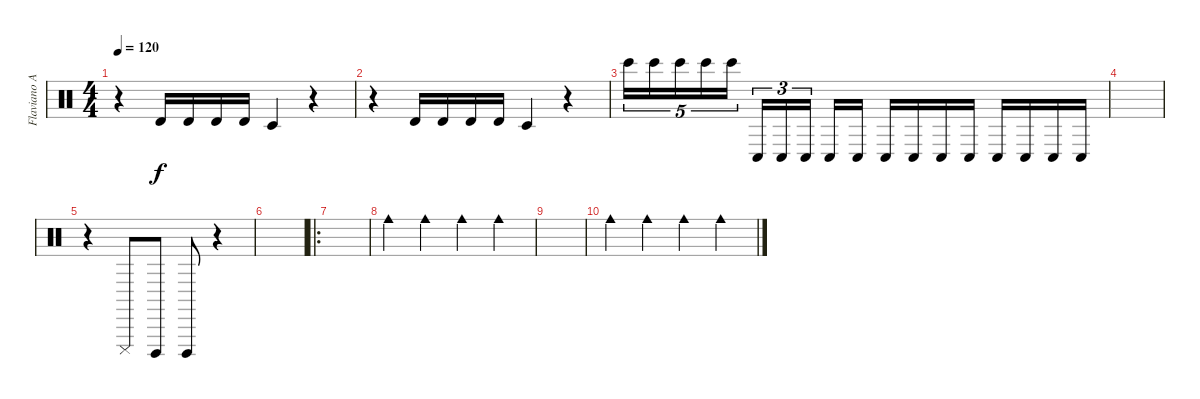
\track ("Flaviano Ademar (Percussão)" "Flaviano A") {instrument percussion}
\staff {score}
\articulation defaults
\ts (4 4)
\tempo 120
\clef neutral
\ks c
r.4{dy f volume 13} "Timbale high (hit)".16 "Timbale high (hit)".16 "Timbale high (hit)".16 "Timbale high (hit)".16 "Timbale low (hit)".4 r.4 |
r.4 "Timbale high (hit)".16 "Timbale high (hit)".16 "Timbale high (hit)".16 "Timbale high (hit)".16 "Timbale low (hit)".4 r.4 |
"Bongo High (hit)".16{tu (5 4)} "Bongo High (hit)".16{tu (5 4)} "Bongo High (hit)".16{tu (5 4)} "Bongo High (hit)".16{tu (5 4)} "Bongo High (hit)".16{tu (5 4)} "Conga low (hit)".16{tu (3 2)} "Conga low (hit)".16{tu (3 2)} "Conga low (hit)".16{tu (3 2)} "Conga low (hit)".16 "Conga low (hit)".16 "Conga low (hit)".16 "Conga low (hit)".16 "Conga low (hit)".16 "Conga low (hit)".16 "Conga low (hit)".16 "Conga low (hit)".16 "Conga low (hit)".16 "Conga low (hit)".16 |
|
r.4 "Cuica (mute)".8 "Cuica (open)".8 "Cuica (open)".8 r.4 |
|
\ro
|
"Cowbell medium (hit)".4 "Cowbell medium (hit)".4 "Cowbell medium (hit)".4 "Cowbell medium (hit)".4 |
|
"Cowbell medium (hit)".4 "Cowbell medium (hit)".4 "Cowbell medium (hit)".4 "Cowbell medium (hit)".4
